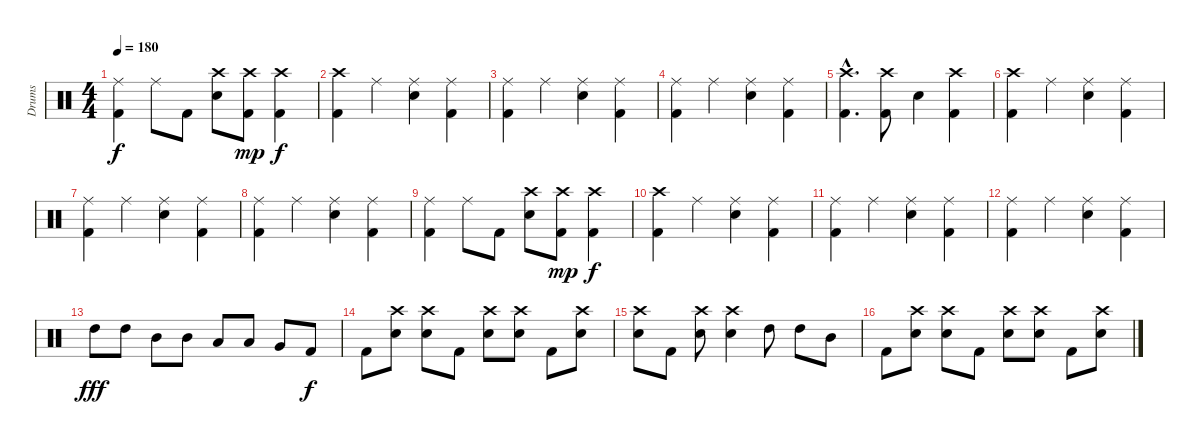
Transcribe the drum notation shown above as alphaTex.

\track ("Drums" "Drums") {instrument percussion}
\staff {score}
\articulation defaults
\ts (4 4)
\tempo 180
\clef neutral
\ks c
("Ride (middle)" "Kick (hit) 2").4{dy f} "Ride (middle)".8 "Kick (hit) 2".8 ("Crash high (hit)" "Snare (hit) 2").8 ("Crash high (hit)" "Kick (hit) 2").8{dy mp} ("Crash high (hit)" "Kick (hit) 2").4{dy f} |
("Crash high (hit)" "Kick (hit) 2").4 "Ride (middle)".4 ("Ride (middle)" "Snare (hit) 2").4 ("Ride (middle)" "Kick (hit) 2").4 |
("Ride (middle)" "Kick (hit) 2").4 "Ride (middle)".4 ("Ride (middle)" "Snare (hit) 2").4 ("Ride (middle)" "Kick (hit) 2").4 |
("Ride (middle)" "Kick (hit) 2").4 "Ride (middle)".4 ("Ride (middle)" "Snare (hit) 2").4 ("Ride (middle)" "Kick (hit) 2").4 |
("Crash high (hit)"{hac} "Kick (hit) 2"{hac}).4{d} ("Crash high (hit)" "Kick (hit) 2").8 "Snare (hit) 2".4 ("Crash high (hit)" "Kick (hit) 2").4 |
("Crash high (hit)" "Kick (hit) 2").4 "Ride (middle)".4 ("Ride (middle)" "Snare (hit) 2").4 ("Ride (middle)" "Kick (hit) 2").4 |
("Ride (middle)" "Kick (hit) 2").4 "Ride (middle)".4 ("Ride (middle)" "Snare (hit) 2").4 ("Ride (middle)" "Kick (hit) 2").4 |
("Ride (middle)" "Kick (hit) 2").4 "Ride (middle)".4 ("Ride (middle)" "Snare (hit) 2").4 ("Ride (middle)" "Kick (hit) 2").4 |
("Ride (middle)" "Kick (hit) 2").4 "Ride (middle)".8 "Kick (hit) 2".8 ("Crash high (hit)" "Snare (hit) 2").8 ("Crash high (hit)" "Kick (hit) 2").8{dy mp} ("Crash high (hit)" "Kick (hit) 2").4{dy f} |
("Crash high (hit)" "Kick (hit) 2").4 "Ride (middle)".4 ("Ride (middle)" "Snare (hit) 2").4 ("Ride (middle)" "Kick (hit) 2").4 |
("Ride (middle)" "Kick (hit) 2").4 "Ride (middle)".4 ("Ride (middle)" "Snare (hit) 2").4 ("Ride (middle)" "Kick (hit) 2").4 |
("Ride (middle)" "Kick (hit) 2").4 "Ride (middle)".4 ("Ride (middle)" "Snare (hit) 2").4 ("Ride (middle)" "Kick (hit) 2").4 |
"High Tom (hit)".8{dy fff} "High Tom (hit)".8 "Mid Tom (hit)".8 "Mid Tom (hit)".8 "Low Tom (hit)".8 "Low Tom (hit)".8 "Very Low Tom (hit)".8 "Kick (hit) 2".8{dy f} |
"Kick (hit) 2".8 ("Crash high (hit)" "Snare (hit) 2").8 ("Crash high (hit)" "Snare (hit) 2").8 "Kick (hit) 2".8 ("Crash high (hit)" "Snare (hit) 2").8 ("Crash high (hit)" "Snare (hit) 2").8 "Kick (hit) 2".8 ("Crash high (hit)" "Snare (hit) 2").8 |
("Crash high (hit)" "Snare (hit) 2").8 "Kick (hit) 2".8 ("Crash high (hit)" "Snare (hit) 2").8 ("Crash high (hit)" "Snare (hit) 2").4 "High Tom (hit)".8 "High Tom (hit)".8 "Mid Tom (hit)".8 |
"Kick (hit) 2".8 ("Crash high (hit)" "Snare (hit) 2").8 ("Crash high (hit)" "Snare (hit) 2").8 "Kick (hit) 2".8 ("Crash high (hit)" "Snare (hit) 2").8 ("Crash high (hit)" "Snare (hit) 2").8 "Kick (hit) 2".8 ("Crash high (hit)" "Snare (hit) 2").8
